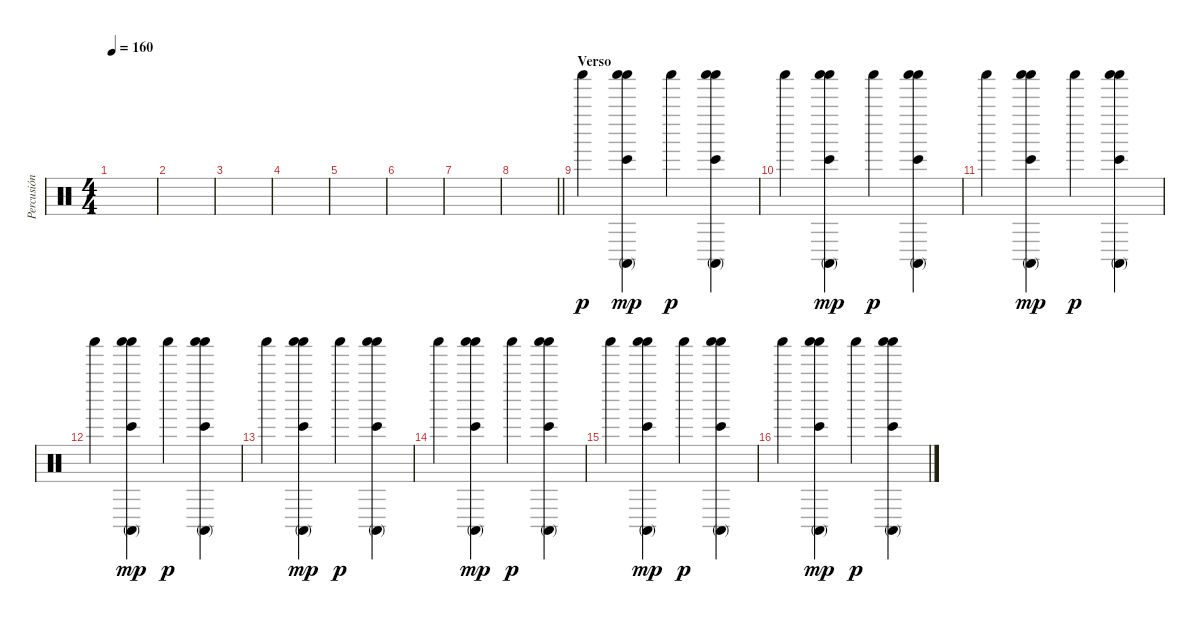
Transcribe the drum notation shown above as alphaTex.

\track ("Percusión" "Percusión") {instrument percussion}
\staff {score}
\articulation defaults
\ts (4 4)
\tempo 160
\clef neutral
\ks c
|
|
|
|
|
|
|
\barLineRight lightlight
|
\section ("" "Verso")
"Shaker (hit)".4{dy p} ("Shaker (hit)" "Conga high (mute)" "Bongo High (hit)" "Shaker (hit)").4{dy mp} "Shaker (hit)".4{dy p} ("Shaker (hit)" "Conga high (mute)" "Bongo High (hit)" "Shaker (hit)").4 |
"Shaker (hit)".4 ("Shaker (hit)" "Conga high (mute)" "Bongo High (hit)" "Shaker (hit)").4{dy mp} "Shaker (hit)".4{dy p} ("Shaker (hit)" "Conga high (mute)" "Bongo High (hit)" "Shaker (hit)").4 |
"Shaker (hit)".4 ("Shaker (hit)" "Conga high (mute)" "Bongo High (hit)" "Shaker (hit)").4{dy mp} "Shaker (hit)".4{dy p} ("Shaker (hit)" "Conga high (mute)" "Bongo High (hit)" "Shaker (hit)").4 |
"Shaker (hit)".4 ("Shaker (hit)" "Conga high (mute)" "Bongo High (hit)" "Shaker (hit)").4{dy mp} "Shaker (hit)".4{dy p} ("Shaker (hit)" "Conga high (mute)" "Bongo High (hit)" "Shaker (hit)").4 |
"Shaker (hit)".4 ("Shaker (hit)" "Conga high (mute)" "Bongo High (hit)" "Shaker (hit)").4{dy mp} "Shaker (hit)".4{dy p} ("Shaker (hit)" "Conga high (mute)" "Bongo High (hit)" "Shaker (hit)").4 |
"Shaker (hit)".4 ("Shaker (hit)" "Conga high (mute)" "Bongo High (hit)" "Shaker (hit)").4{dy mp} "Shaker (hit)".4{dy p} ("Shaker (hit)" "Conga high (mute)" "Bongo High (hit)" "Shaker (hit)").4 |
"Shaker (hit)".4 ("Shaker (hit)" "Conga high (mute)" "Bongo High (hit)" "Shaker (hit)").4{dy mp} "Shaker (hit)".4{dy p} ("Shaker (hit)" "Conga high (mute)" "Bongo High (hit)" "Shaker (hit)").4 |
"Shaker (hit)".4 ("Shaker (hit)" "Conga high (mute)" "Bongo High (hit)" "Shaker (hit)").4{dy mp} "Shaker (hit)".4{dy p} ("Shaker (hit)" "Conga high (mute)" "Bongo High (hit)" "Shaker (hit)").4
